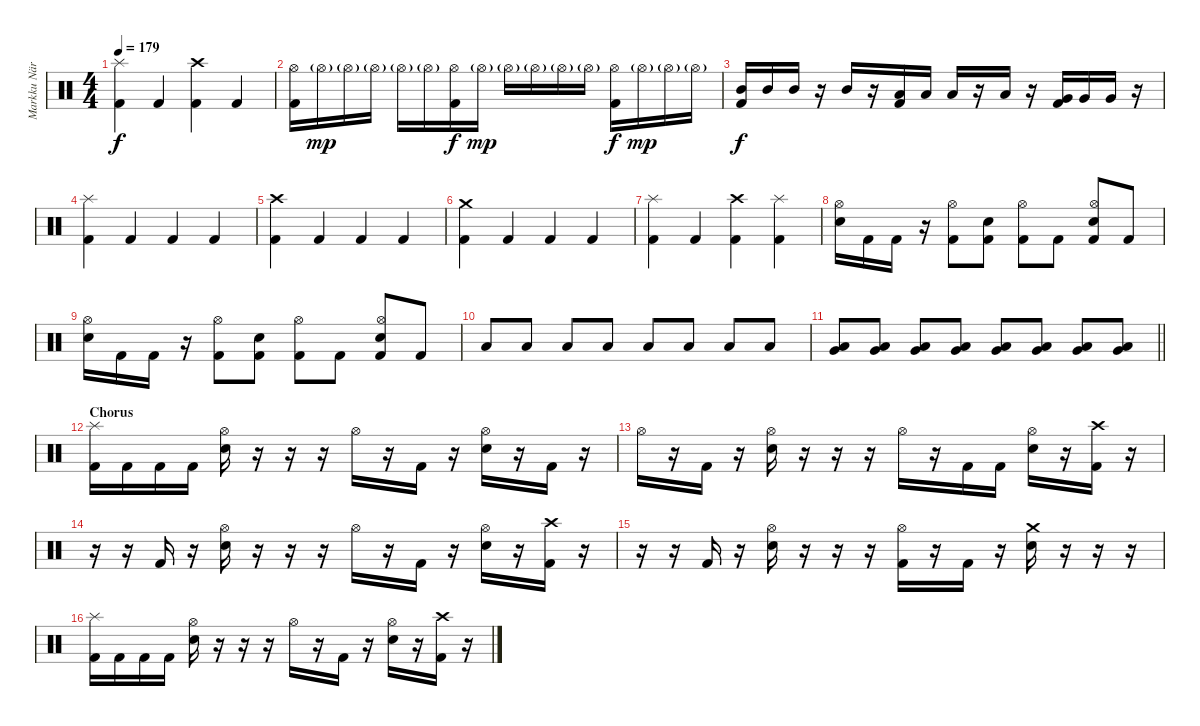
\track ("Markku Näreneva (Drums)" "Markku När") {instrument percussion}
\staff {score}
\articulation defaults
\ts (4 4)
\tempo 179
\clef neutral
\ks c
("Kick (hit) 2" "Splash (hit)").4{dy f} "Kick (hit) 2".4 ("Kick (hit) 2" "Crash high (hit)").4 "Kick (hit) 2".4 |
("Kick (hit) 2" "Hi-Hat (open)").16 "Hi-Hat (open)"{g}.16{dy mp} "Hi-Hat (open)"{g}.16 "Hi-Hat (open)"{g}.16 "Hi-Hat (open)"{g}.16 "Hi-Hat (open)"{g}.16 ("Kick (hit) 2" "Hi-Hat (open)").16{dy f} "Hi-Hat (open)"{g}.16{dy mp} "Hi-Hat (open)"{g}.16 "Hi-Hat (open)"{g}.16 "Hi-Hat (open)"{g}.16 "Hi-Hat (open)"{g}.16 ("Kick (hit) 2" "Hi-Hat (open)").16{dy f} "Hi-Hat (open)"{g}.16{dy mp} "Hi-Hat (open)"{g}.16 "Hi-Hat (open)"{g}.16 |
("Kick (hit) 2" "Mid Tom (hit)").16{dy f} "Mid Tom (hit)".16 "Mid Tom (hit)".16 r.16 "Mid Tom (hit)".16 r.16 ("Kick (hit) 2" "Low Tom (hit)").16 "Low Tom (hit)".16 "Low Tom (hit)".16 r.16 "Low Tom (hit)".16 r.16 ("Kick (hit) 2" "Very Low Tom (hit)").16 "Very Low Tom (hit)".16 "Very Low Tom (hit)".16 r.16 |
("Kick (hit) 2" "Splash (hit)").4 "Kick (hit) 2".4 "Kick (hit) 2".4 "Kick (hit) 2".4 |
("Kick (hit) 2" "Crash high (hit)").4 "Kick (hit) 2".4 "Kick (hit) 2".4 "Kick (hit) 2".4 |
("Kick (hit) 2" "Crash medium (hit)").4 "Kick (hit) 2".4 "Kick (hit) 2".4 "Kick (hit) 2".4 |
("Kick (hit) 2" "Splash (hit)").4 "Kick (hit) 2".4 ("Kick (hit) 2" "Crash high (hit)").4 ("Kick (hit) 2" "Splash (hit)").4 |
("Snare (hit) 2" "Hi-Hat (open)").16 "Kick (hit) 2".16 "Kick (hit) 2".16 r.16 ("Kick (hit) 2" "Hi-Hat (open)").8 ("Kick (hit) 2" "Snare (hit) 2").8 ("Kick (hit) 2" "Hi-Hat (open)").8 "Kick (hit) 2".8 ("Kick (hit) 2" "Snare (hit) 2" "Hi-Hat (open)").8 "Kick (hit) 2".8 |
("Snare (hit) 2" "Hi-Hat (open)").16 "Kick (hit) 2".16 "Kick (hit) 2".16 r.16 ("Kick (hit) 2" "Hi-Hat (open)").8 ("Kick (hit) 2" "Snare (hit) 2").8 ("Kick (hit) 2" "Hi-Hat (open)").8 "Kick (hit) 2".8 ("Kick (hit) 2" "Snare (hit) 2" "Hi-Hat (open)").8 "Kick (hit) 2".8 |
"Low Tom (hit)".8 "Low Tom (hit)".8 "Low Tom (hit)".8 "Low Tom (hit)".8 "Low Tom (hit)".8 "Low Tom (hit)".8 "Low Tom (hit)".8 "Low Tom (hit)".8 |
\barLineRight lightlight
("Low Tom (hit)" "Very Low Tom (hit)").8 ("Low Tom (hit)" "Very Low Tom (hit)").8 ("Low Tom (hit)" "Very Low Tom (hit)").8 ("Low Tom (hit)" "Very Low Tom (hit)").8 ("Low Tom (hit)" "Very Low Tom (hit)").8 ("Low Tom (hit)" "Very Low Tom (hit)").8 ("Low Tom (hit)" "Very Low Tom (hit)").8 ("Low Tom (hit)" "Very Low Tom (hit)").8 |
\section ("" "Chorus")
("Kick (hit) 2" "Splash (hit)").16 "Kick (hit) 2".16 "Kick (hit) 2".16 "Kick (hit) 2".16 ("Snare (hit) 2" "Hi-Hat (open)").16 r.16 r.16 r.16 "Hi-Hat (open)".16 r.16 "Kick (hit) 2".16 r.16 ("Snare (hit) 2" "Hi-Hat (open)").16 r.16 "Kick (hit) 2".16 r.16 |
"Hi-Hat (open)".16 r.16 "Kick (hit) 2".16 r.16 ("Snare (hit) 2" "Hi-Hat (open)").16 r.16 r.16 r.16 "Hi-Hat (open)".16 r.16 "Kick (hit) 2".16 "Kick (hit) 2".16 ("Snare (hit) 2" "Hi-Hat (open)").16 r.16 ("Kick (hit) 2" "Crash high (hit)").16 r.16 |
r.16 r.16 "Kick (hit) 2".16 r.16 ("Snare (hit) 2" "Hi-Hat (open)").16 r.16 r.16 r.16 "Hi-Hat (open)".16 r.16 "Kick (hit) 2".16 r.16 ("Snare (hit) 2" "Hi-Hat (open)").16 r.16 ("Kick (hit) 2" "Crash high (hit)").16 r.16 |
r.16 r.16 "Kick (hit) 2".16 r.16 ("Snare (hit) 2" "Hi-Hat (open)").16 r.16 r.16 r.16 ("Kick (hit) 2" "Hi-Hat (open)").16 r.16 "Kick (hit) 2".16 r.16 ("Snare (hit) 2" "Crash medium (hit)").16 r.16 r.16 r.16 |
("Kick (hit) 2" "Splash (hit)").16 "Kick (hit) 2".16 "Kick (hit) 2".16 "Kick (hit) 2".16 ("Snare (hit) 2" "Hi-Hat (open)").16 r.16 r.16 r.16 "Hi-Hat (open)".16 r.16 "Kick (hit) 2".16 r.16 ("Snare (hit) 2" "Hi-Hat (open)").16 r.16 ("Kick (hit) 2" "Crash high (hit)").16 r.16
